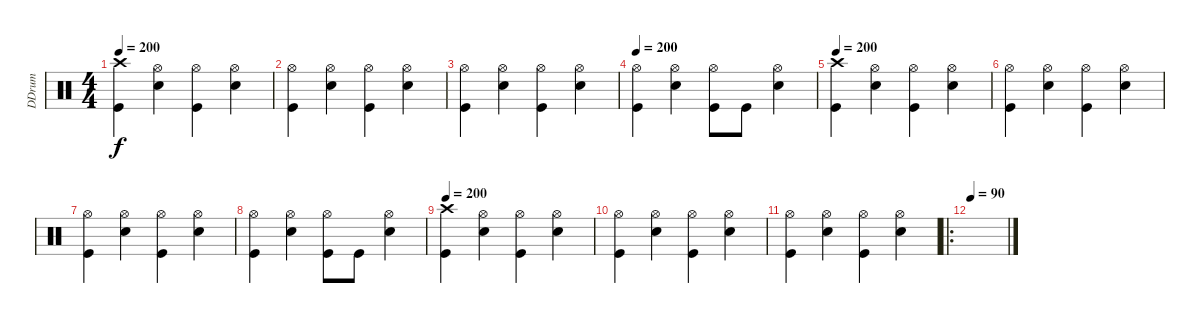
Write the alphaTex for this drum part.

\track ("DDrum" "DDrum") {instrument percussion}
\staff {score}
\articulation defaults
\ts (4 4)
\tempo 200
\clef neutral
\ks c
("Crash high (hit)" "Kick (hit)").4{dy f} ("Hi-Hat (open)" "Electric Snare (hit)").4 ("Hi-Hat (open)" "Kick (hit)").4 ("Hi-Hat (open)" "Electric Snare (hit)").4 |
("Hi-Hat (open)" "Kick (hit)").4 ("Hi-Hat (open)" "Electric Snare (hit)").4 ("Hi-Hat (open)" "Kick (hit)").4 ("Hi-Hat (open)" "Electric Snare (hit)").4 |
("Hi-Hat (open)" "Kick (hit)").4 ("Hi-Hat (open)" "Electric Snare (hit)").4 ("Hi-Hat (open)" "Kick (hit)").4 ("Hi-Hat (open)" "Electric Snare (hit)").4 |
\tempo 200
("Hi-Hat (open)" "Kick (hit)").4 ("Hi-Hat (open)" "Electric Snare (hit)").4 ("Hi-Hat (open)" "Kick (hit)").8 "Kick (hit)".8 ("Hi-Hat (open)" "Electric Snare (hit)").4 |
\tempo 200
("Crash high (hit)" "Kick (hit)").4 ("Hi-Hat (open)" "Electric Snare (hit)").4 ("Hi-Hat (open)" "Kick (hit)").4 ("Hi-Hat (open)" "Electric Snare (hit)").4 |
("Hi-Hat (open)" "Kick (hit)").4 ("Hi-Hat (open)" "Electric Snare (hit)").4 ("Hi-Hat (open)" "Kick (hit)").4 ("Hi-Hat (open)" "Electric Snare (hit)").4 |
("Hi-Hat (open)" "Kick (hit)").4 ("Hi-Hat (open)" "Electric Snare (hit)").4 ("Hi-Hat (open)" "Kick (hit)").4 ("Hi-Hat (open)" "Electric Snare (hit)").4 |
("Hi-Hat (open)" "Kick (hit)").4 ("Hi-Hat (open)" "Electric Snare (hit)").4 ("Hi-Hat (open)" "Kick (hit)").8 "Kick (hit)".8 ("Hi-Hat (open)" "Electric Snare (hit)").4 |
\tempo 200
("Crash high (hit)" "Kick (hit)").4 ("Hi-Hat (open)" "Electric Snare (hit)").4 ("Hi-Hat (open)" "Kick (hit)").4 ("Hi-Hat (open)" "Electric Snare (hit)").4 |
("Hi-Hat (open)" "Kick (hit)").4 ("Hi-Hat (open)" "Electric Snare (hit)").4 ("Hi-Hat (open)" "Kick (hit)").4 ("Hi-Hat (open)" "Electric Snare (hit)").4 |
("Hi-Hat (open)" "Kick (hit)").4 ("Hi-Hat (open)" "Electric Snare (hit)").4 ("Hi-Hat (open)" "Kick (hit)").4 ("Hi-Hat (open)" "Electric Snare (hit)").4 |
\ro
\tempo 90
